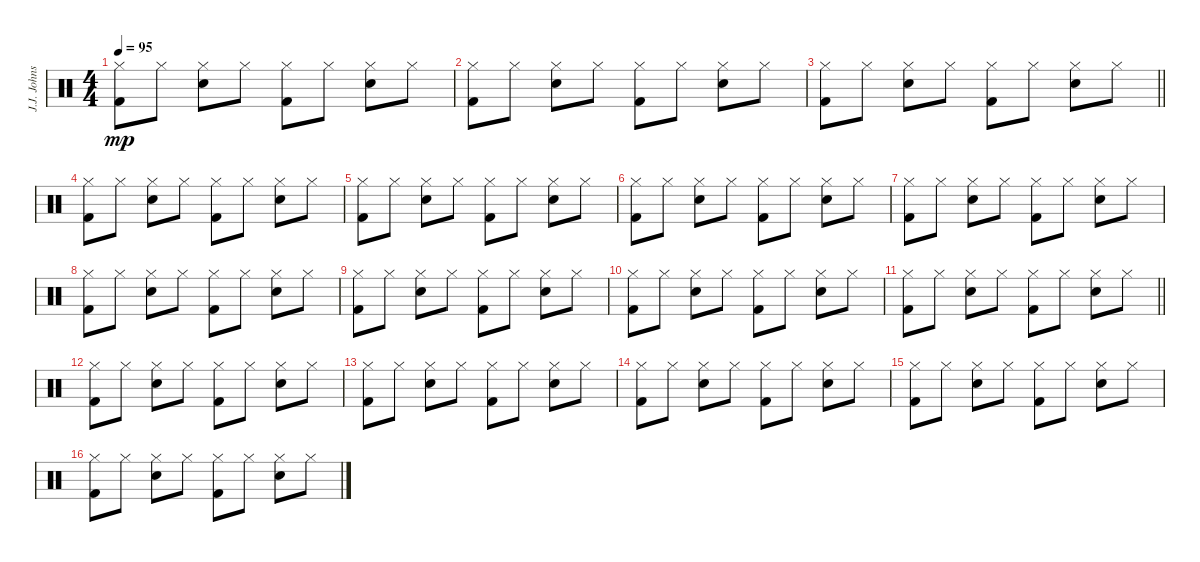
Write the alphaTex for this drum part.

\track ("J.J. Johnson" "J.J. Johns") {instrument percussion}
\staff {score}
\articulation defaults
\ts (4 4)
\tempo 95
\clef neutral
\ks c
("Hi-Hat (closed)" "Kick (hit) 2").8{dy mp} "Hi-Hat (closed)".8 ("Hi-Hat (closed)" "Electric Snare (hit)").8 "Hi-Hat (closed)".8 ("Hi-Hat (closed)" "Kick (hit) 2").8 "Hi-Hat (closed)".8 ("Hi-Hat (closed)" "Electric Snare (hit)").8 "Hi-Hat (closed)".8 |
("Hi-Hat (closed)" "Kick (hit) 2").8 "Hi-Hat (closed)".8 ("Hi-Hat (closed)" "Electric Snare (hit)").8 "Hi-Hat (closed)".8 ("Hi-Hat (closed)" "Kick (hit) 2").8 "Hi-Hat (closed)".8 ("Hi-Hat (closed)" "Electric Snare (hit)").8 "Hi-Hat (closed)".8 |
\barLineRight lightlight
("Hi-Hat (closed)" "Kick (hit) 2").8 "Hi-Hat (closed)".8 ("Hi-Hat (closed)" "Electric Snare (hit)").8 "Hi-Hat (closed)".8 ("Hi-Hat (closed)" "Kick (hit) 2").8 "Hi-Hat (closed)".8 ("Hi-Hat (closed)" "Electric Snare (hit)").8 "Hi-Hat (closed)".8 |
("Hi-Hat (closed)" "Kick (hit) 2").8 "Hi-Hat (closed)".8 ("Hi-Hat (closed)" "Electric Snare (hit)").8 "Hi-Hat (closed)".8 ("Hi-Hat (closed)" "Kick (hit) 2").8 "Hi-Hat (closed)".8 ("Hi-Hat (closed)" "Electric Snare (hit)").8 "Hi-Hat (closed)".8 |
("Hi-Hat (closed)" "Kick (hit) 2").8 "Hi-Hat (closed)".8 ("Hi-Hat (closed)" "Electric Snare (hit)").8 "Hi-Hat (closed)".8 ("Hi-Hat (closed)" "Kick (hit) 2").8 "Hi-Hat (closed)".8 ("Hi-Hat (closed)" "Electric Snare (hit)").8 "Hi-Hat (closed)".8 |
("Hi-Hat (closed)" "Kick (hit) 2").8 "Hi-Hat (closed)".8 ("Hi-Hat (closed)" "Electric Snare (hit)").8 "Hi-Hat (closed)".8 ("Hi-Hat (closed)" "Kick (hit) 2").8 "Hi-Hat (closed)".8 ("Hi-Hat (closed)" "Electric Snare (hit)").8 "Hi-Hat (closed)".8 |
("Hi-Hat (closed)" "Kick (hit) 2").8 "Hi-Hat (closed)".8 ("Hi-Hat (closed)" "Electric Snare (hit)").8 "Hi-Hat (closed)".8 ("Hi-Hat (closed)" "Kick (hit) 2").8 "Hi-Hat (closed)".8 ("Hi-Hat (closed)" "Electric Snare (hit)").8 "Hi-Hat (closed)".8 |
("Hi-Hat (closed)" "Kick (hit) 2").8 "Hi-Hat (closed)".8 ("Hi-Hat (closed)" "Electric Snare (hit)").8 "Hi-Hat (closed)".8 ("Hi-Hat (closed)" "Kick (hit) 2").8 "Hi-Hat (closed)".8 ("Hi-Hat (closed)" "Electric Snare (hit)").8 "Hi-Hat (closed)".8 |
("Hi-Hat (closed)" "Kick (hit) 2").8 "Hi-Hat (closed)".8 ("Hi-Hat (closed)" "Electric Snare (hit)").8 "Hi-Hat (closed)".8 ("Hi-Hat (closed)" "Kick (hit) 2").8 "Hi-Hat (closed)".8 ("Hi-Hat (closed)" "Electric Snare (hit)").8 "Hi-Hat (closed)".8 |
("Hi-Hat (closed)" "Kick (hit) 2").8 "Hi-Hat (closed)".8 ("Hi-Hat (closed)" "Electric Snare (hit)").8 "Hi-Hat (closed)".8 ("Hi-Hat (closed)" "Kick (hit) 2").8 "Hi-Hat (closed)".8 ("Hi-Hat (closed)" "Electric Snare (hit)").8 "Hi-Hat (closed)".8 |
\barLineRight lightlight
("Hi-Hat (closed)" "Kick (hit) 2").8 "Hi-Hat (closed)".8 ("Hi-Hat (closed)" "Electric Snare (hit)").8 "Hi-Hat (closed)".8 ("Hi-Hat (closed)" "Kick (hit) 2").8 "Hi-Hat (closed)".8 ("Hi-Hat (closed)" "Electric Snare (hit)").8 "Hi-Hat (closed)".8 |
("Hi-Hat (closed)" "Kick (hit) 2").8 "Hi-Hat (closed)".8 ("Hi-Hat (closed)" "Electric Snare (hit)").8 "Hi-Hat (closed)".8 ("Hi-Hat (closed)" "Kick (hit) 2").8 "Hi-Hat (closed)".8 ("Hi-Hat (closed)" "Electric Snare (hit)").8 "Hi-Hat (closed)".8 |
("Hi-Hat (closed)" "Kick (hit) 2").8 "Hi-Hat (closed)".8 ("Hi-Hat (closed)" "Electric Snare (hit)").8 "Hi-Hat (closed)".8 ("Hi-Hat (closed)" "Kick (hit) 2").8 "Hi-Hat (closed)".8 ("Hi-Hat (closed)" "Electric Snare (hit)").8 "Hi-Hat (closed)".8 |
("Hi-Hat (closed)" "Kick (hit) 2").8 "Hi-Hat (closed)".8 ("Hi-Hat (closed)" "Electric Snare (hit)").8 "Hi-Hat (closed)".8 ("Hi-Hat (closed)" "Kick (hit) 2").8 "Hi-Hat (closed)".8 ("Hi-Hat (closed)" "Electric Snare (hit)").8 "Hi-Hat (closed)".8 |
("Hi-Hat (closed)" "Kick (hit) 2").8 "Hi-Hat (closed)".8 ("Hi-Hat (closed)" "Electric Snare (hit)").8 "Hi-Hat (closed)".8 ("Hi-Hat (closed)" "Kick (hit) 2").8 "Hi-Hat (closed)".8 ("Hi-Hat (closed)" "Electric Snare (hit)").8 "Hi-Hat (closed)".8 |
("Hi-Hat (closed)" "Kick (hit) 2").8 "Hi-Hat (closed)".8 ("Hi-Hat (closed)" "Electric Snare (hit)").8 "Hi-Hat (closed)".8 ("Hi-Hat (closed)" "Kick (hit) 2").8 "Hi-Hat (closed)".8 ("Hi-Hat (closed)" "Electric Snare (hit)").8 "Hi-Hat (closed)".8
